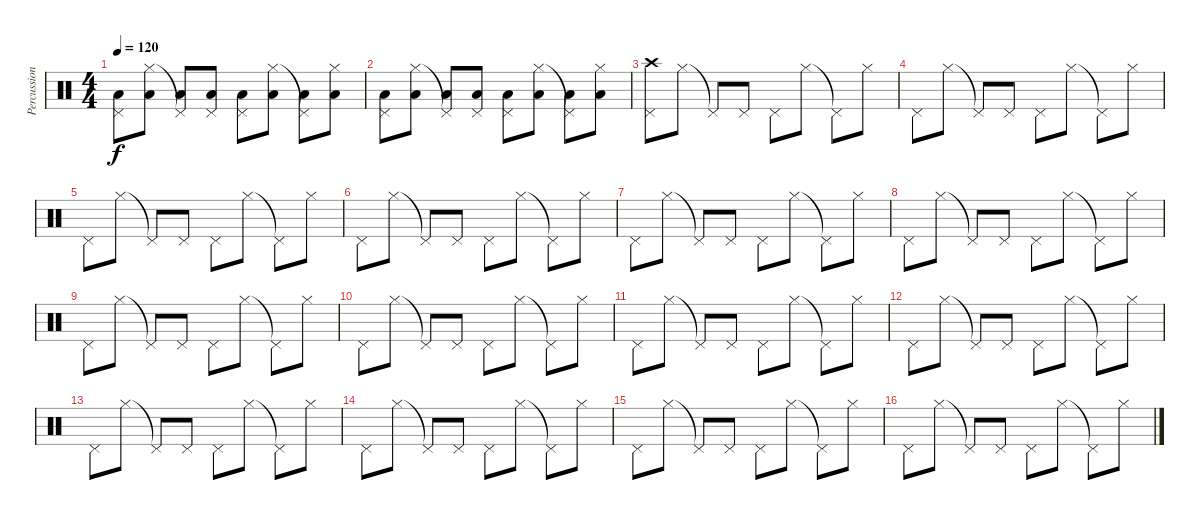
\track ("Percussions" "Percussion") {instrument percussion}
\staff {score}
\articulation defaults
\ts (4 4)
\tempo 120
\clef neutral
\ks c
("Pedal Hi-Hat (hit)" "Low Tom (hit)").8{dy f} ("Hi-Hat (closed)" "Low Tom (hit)").8 ("Pedal Hi-Hat (hit)"{t} "Low Tom (hit)").8 ("Pedal Hi-Hat (hit)" "Low Tom (hit)").8 ("Pedal Hi-Hat (hit)" "Low Tom (hit)").8 ("Hi-Hat (closed)" "Low Tom (hit)").8 ("Pedal Hi-Hat (hit)"{t} "Low Tom (hit)").8 ("Hi-Hat (closed)" "Low Tom (hit)").8 |
("Pedal Hi-Hat (hit)" "Low Tom (hit)").8 ("Hi-Hat (closed)" "Low Tom (hit)").8 ("Pedal Hi-Hat (hit)"{t} "Low Tom (hit)").8 ("Pedal Hi-Hat (hit)" "Low Tom (hit)").8 ("Pedal Hi-Hat (hit)" "Low Tom (hit)").8 ("Hi-Hat (closed)" "Low Tom (hit)").8 ("Pedal Hi-Hat (hit)"{t} "Low Tom (hit)").8 ("Hi-Hat (closed)" "Low Tom (hit)").8 |
("Pedal Hi-Hat (hit)" "Crash high (hit)").8 "Hi-Hat (closed)".8 "Pedal Hi-Hat (hit)"{t}.8 "Pedal Hi-Hat (hit)".8 "Pedal Hi-Hat (hit)".8 "Hi-Hat (closed)".8 "Pedal Hi-Hat (hit)"{t}.8 "Hi-Hat (closed)".8 |
"Pedal Hi-Hat (hit)".8 "Hi-Hat (closed)".8 "Pedal Hi-Hat (hit)"{t}.8 "Pedal Hi-Hat (hit)".8 "Pedal Hi-Hat (hit)".8 "Hi-Hat (closed)".8 "Pedal Hi-Hat (hit)"{t}.8 "Hi-Hat (closed)".8 |
"Pedal Hi-Hat (hit)".8 "Hi-Hat (closed)".8 "Pedal Hi-Hat (hit)"{t}.8 "Pedal Hi-Hat (hit)".8 "Pedal Hi-Hat (hit)".8 "Hi-Hat (closed)".8 "Pedal Hi-Hat (hit)"{t}.8 "Hi-Hat (closed)".8 |
"Pedal Hi-Hat (hit)".8 "Hi-Hat (closed)".8 "Pedal Hi-Hat (hit)"{t}.8 "Pedal Hi-Hat (hit)".8 "Pedal Hi-Hat (hit)".8 "Hi-Hat (closed)".8 "Pedal Hi-Hat (hit)"{t}.8 "Hi-Hat (closed)".8 |
"Pedal Hi-Hat (hit)".8 "Hi-Hat (closed)".8 "Pedal Hi-Hat (hit)"{t}.8 "Pedal Hi-Hat (hit)".8 "Pedal Hi-Hat (hit)".8 "Hi-Hat (closed)".8 "Pedal Hi-Hat (hit)"{t}.8 "Hi-Hat (closed)".8 |
"Pedal Hi-Hat (hit)".8 "Hi-Hat (closed)".8 "Pedal Hi-Hat (hit)"{t}.8 "Pedal Hi-Hat (hit)".8 "Pedal Hi-Hat (hit)".8 "Hi-Hat (closed)".8 "Pedal Hi-Hat (hit)"{t}.8 "Hi-Hat (closed)".8 |
"Pedal Hi-Hat (hit)".8 "Hi-Hat (closed)".8 "Pedal Hi-Hat (hit)"{t}.8 "Pedal Hi-Hat (hit)".8 "Pedal Hi-Hat (hit)".8 "Hi-Hat (closed)".8 "Pedal Hi-Hat (hit)"{t}.8 "Hi-Hat (closed)".8 |
"Pedal Hi-Hat (hit)".8 "Hi-Hat (closed)".8 "Pedal Hi-Hat (hit)"{t}.8 "Pedal Hi-Hat (hit)".8 "Pedal Hi-Hat (hit)".8 "Hi-Hat (closed)".8 "Pedal Hi-Hat (hit)"{t}.8 "Hi-Hat (closed)".8 |
"Pedal Hi-Hat (hit)".8 "Hi-Hat (closed)".8 "Pedal Hi-Hat (hit)"{t}.8 "Pedal Hi-Hat (hit)".8 "Pedal Hi-Hat (hit)".8 "Hi-Hat (closed)".8 "Pedal Hi-Hat (hit)"{t}.8 "Hi-Hat (closed)".8 |
"Pedal Hi-Hat (hit)".8 "Hi-Hat (closed)".8 "Pedal Hi-Hat (hit)"{t}.8 "Pedal Hi-Hat (hit)".8 "Pedal Hi-Hat (hit)".8 "Hi-Hat (closed)".8 "Pedal Hi-Hat (hit)"{t}.8 "Hi-Hat (closed)".8 |
"Pedal Hi-Hat (hit)".8 "Hi-Hat (closed)".8 "Pedal Hi-Hat (hit)"{t}.8 "Pedal Hi-Hat (hit)".8 "Pedal Hi-Hat (hit)".8 "Hi-Hat (closed)".8 "Pedal Hi-Hat (hit)"{t}.8 "Hi-Hat (closed)".8 |
"Pedal Hi-Hat (hit)".8 "Hi-Hat (closed)".8 "Pedal Hi-Hat (hit)"{t}.8 "Pedal Hi-Hat (hit)".8 "Pedal Hi-Hat (hit)".8 "Hi-Hat (closed)".8 "Pedal Hi-Hat (hit)"{t}.8 "Hi-Hat (closed)".8 |
"Pedal Hi-Hat (hit)".8 "Hi-Hat (closed)".8 "Pedal Hi-Hat (hit)"{t}.8 "Pedal Hi-Hat (hit)".8 "Pedal Hi-Hat (hit)".8 "Hi-Hat (closed)".8 "Pedal Hi-Hat (hit)"{t}.8 "Hi-Hat (closed)".8 |
"Pedal Hi-Hat (hit)".8 "Hi-Hat (closed)".8 "Pedal Hi-Hat (hit)"{t}.8 "Pedal Hi-Hat (hit)".8 "Pedal Hi-Hat (hit)".8 "Hi-Hat (closed)".8 "Pedal Hi-Hat (hit)"{t}.8 "Hi-Hat (closed)".8
